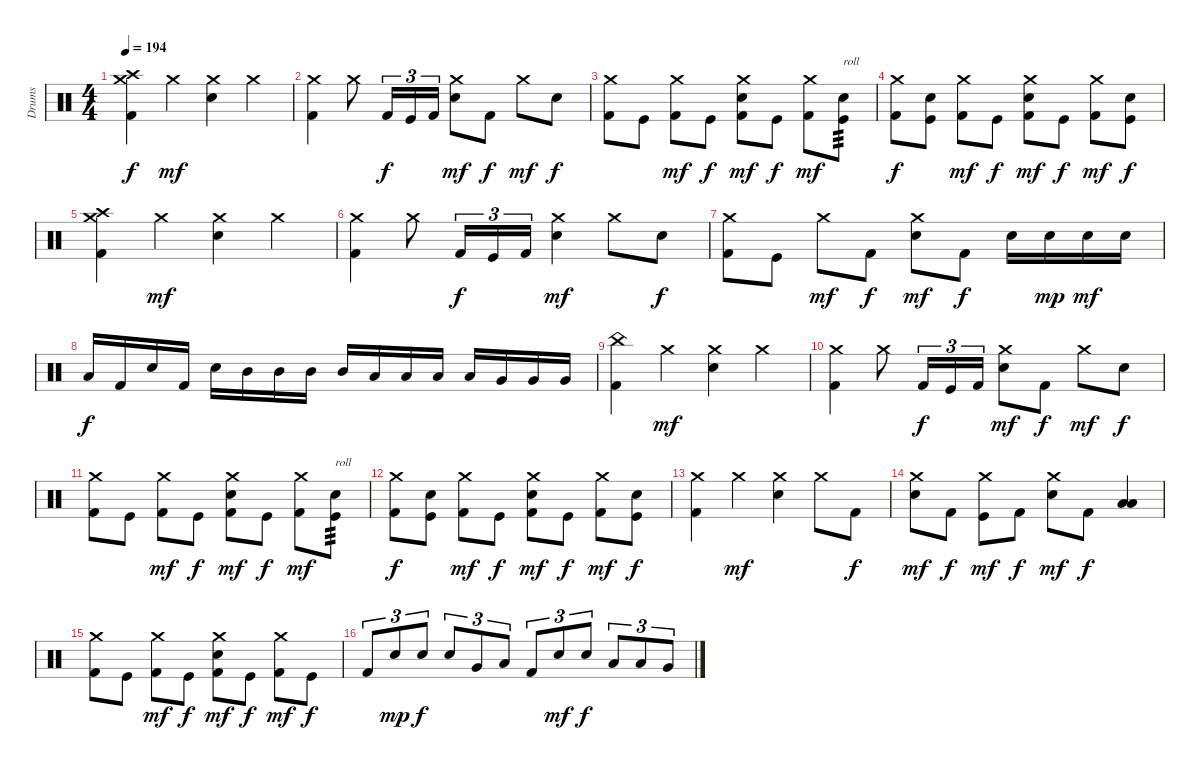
\track ("Drums" "Drums") {instrument percussion}
\staff {score}
\articulation defaults
\ts (4 4)
\tempo 194
\clef neutral
\ks c
("Crash medium (hit)" "Crash high (hit)" "Kick (hit) 2").4{dy f} "Crash medium (hit)".4{dy mf} ("Crash medium (hit)" "Snare (hit) 2").4 "Crash medium (hit)".4 |
("Crash medium (hit)" "Kick (hit) 2").4 "Crash medium (hit)".8 "Kick (hit) 2".16{tu (3 2) dy f} "Kick (hit)".16{tu (3 2)} "Kick (hit) 2".16{tu (3 2)} ("Crash medium (hit)" "Snare (hit) 2").8{dy mf} "Kick (hit) 2".8{dy f} "Crash medium (hit)".8{dy mf} "Snare (hit) 2".8{dy f} |
("Crash medium (hit)" "Kick (hit) 2").8 "Kick (hit)".8 ("Crash medium (hit)" "Kick (hit) 2").8{dy mf} "Kick (hit)".8{dy f} ("Crash medium (hit)" "Snare (hit) 2" "Kick (hit) 2").8{dy mf} "Kick (hit)".8{dy f} ("Crash medium (hit)" "Kick (hit) 2").8{dy mf} ("Snare (hit) 2" "Kick (hit)").8{txt "roll" tp 3} |
("Crash medium (hit)" "Kick (hit) 2").8{dy f} ("Snare (hit) 2" "Kick (hit)").8 ("Crash medium (hit)" "Kick (hit) 2").8{dy mf} "Kick (hit)".8{dy f} ("Crash medium (hit)" "Snare (hit) 2" "Kick (hit) 2").8{dy mf} "Kick (hit)".8{dy f} ("Crash medium (hit)" "Kick (hit) 2").8{dy mf} ("Snare (hit) 2" "Kick (hit)").8{dy f} |
("Crash medium (hit)" "Crash high (hit)" "Kick (hit) 2").4 "Crash medium (hit)".4{dy mf} ("Crash medium (hit)" "Snare (hit) 2").4 "Crash medium (hit)".4 |
("Crash medium (hit)" "Kick (hit) 2").4 "Crash medium (hit)".8 "Kick (hit) 2".16{tu (3 2) dy f} "Kick (hit)".16{tu (3 2)} "Kick (hit) 2".16{tu (3 2)} ("Crash medium (hit)" "Snare (hit) 2").4{dy mf} "Crash medium (hit)".8 "Snare (hit) 2".8{dy f} |
("Crash medium (hit)" "Kick (hit) 2").8 "Kick (hit)".8 "Crash medium (hit)".8{dy mf} "Kick (hit) 2".8{dy f} ("Crash medium (hit)" "Snare (hit) 2").8{dy mf} "Kick (hit) 2".8{dy f} "Snare (hit) 2".16 "Snare (hit) 2".16{dy mp} "Snare (hit) 2".16{dy mf} "Snare (hit) 2".16 |
"Low Tom (hit)".16{dy f} "Kick (hit) 2".16 "Snare (hit) 2".16 "Kick (hit) 2".16 "Snare (hit) 2".16 "Mid Tom (hit)".16 "Mid Tom (hit)".16 "Mid Tom (hit)".16 "Mid Tom (hit)".16 "Low Tom (hit)".16 "Low Tom (hit)".16 "Low Tom (hit)".16 "Low Tom (hit)".16 "Very Low Tom (hit)".16 "Very Low Tom (hit)".16 "Very Low Tom (hit)".16 |
("China (hit)" "Kick (hit) 2").4 "Crash medium (hit)".4{dy mf} ("Crash medium (hit)" "Snare (hit) 2").4 "Crash medium (hit)".4 |
("Crash medium (hit)" "Kick (hit) 2").4 "Crash medium (hit)".8 "Kick (hit) 2".16{tu (3 2) dy f} "Kick (hit)".16{tu (3 2)} "Kick (hit) 2".16{tu (3 2)} ("Crash medium (hit)" "Snare (hit) 2").8{dy mf} "Kick (hit) 2".8{dy f} "Crash medium (hit)".8{dy mf} "Snare (hit) 2".8{dy f} |
("Crash medium (hit)" "Kick (hit) 2").8 "Kick (hit)".8 ("Crash medium (hit)" "Kick (hit) 2").8{dy mf} "Kick (hit)".8{dy f} ("Crash medium (hit)" "Snare (hit) 2" "Kick (hit) 2").8{dy mf} "Kick (hit)".8{dy f} ("Crash medium (hit)" "Kick (hit) 2").8{dy mf} ("Snare (hit) 2" "Kick (hit)").8{txt "roll" tp 3} |
("Crash medium (hit)" "Kick (hit) 2").8{dy f} ("Snare (hit) 2" "Kick (hit)").8 ("Crash medium (hit)" "Kick (hit) 2").8{dy mf} "Kick (hit)".8{dy f} ("Crash medium (hit)" "Snare (hit) 2" "Kick (hit) 2").8{dy mf} "Kick (hit)".8{dy f} ("Crash medium (hit)" "Kick (hit) 2").8{dy mf} ("Snare (hit) 2" "Kick (hit)").8{dy f} |
("Crash medium (hit)" "Kick (hit) 2").4 "Crash medium (hit)".4{dy mf} ("Crash medium (hit)" "Snare (hit) 2").4 "Crash medium (hit)".8 "Kick (hit) 2".8{dy f} |
("Crash medium (hit)" "Snare (hit) 2").8{dy mf} "Kick (hit) 2".8{dy f} ("Crash medium (hit)" "Kick (hit)").8{dy mf} "Kick (hit) 2".8{dy f} ("Crash medium (hit)" "Snare (hit) 2").8{dy mf} "Kick (hit) 2".8{dy f} ("Low Tom (hit)" "Low Tom (hit)").4 |
("Crash medium (hit)" "Kick (hit) 2").8 "Kick (hit)".8 ("Crash medium (hit)" "Kick (hit) 2").8{dy mf} "Kick (hit)".8{dy f} ("Crash medium (hit)" "Snare (hit) 2" "Kick (hit) 2").8{dy mf} "Kick (hit)".8{dy f} ("Crash medium (hit)" "Kick (hit) 2").8{dy mf} "Kick (hit)".8{dy f} |
"Kick (hit) 2".8{tu (3 2)} "Snare (hit) 2".8{tu (3 2) dy mp} "Snare (hit) 2".8{tu (3 2) dy f} "Snare (hit) 2".8{tu (3 2)} "Very Low Tom (hit)".8{tu (3 2)} "Low Tom (hit)".8{tu (3 2)} "Kick (hit) 2".8{tu (3 2)} "Snare (hit) 2".8{tu (3 2) dy mf} "Snare (hit) 2".8{tu (3 2) dy f} "Low Tom (hit)".8{tu (3 2)} "Low Tom (hit)".8{tu (3 2)} "Very Low Tom (hit)".8{tu (3 2)}
